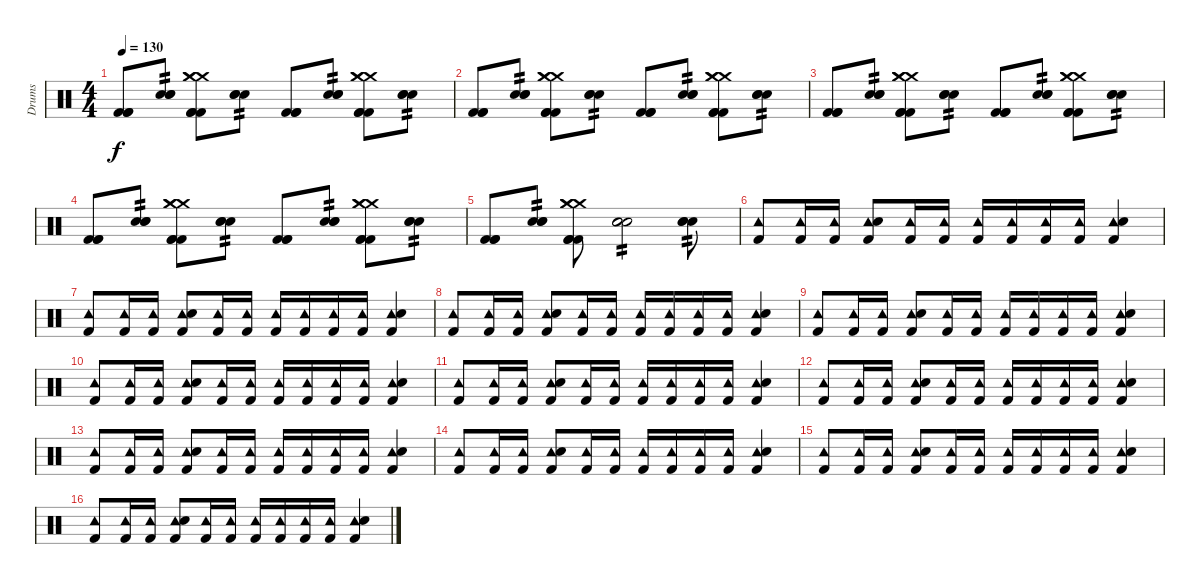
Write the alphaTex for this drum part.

\track ("Drums" "Drums") {instrument percussion}
\staff {score}
\articulation defaults
\ts (4 4)
\tempo 130
\clef neutral
\ks c
("Kick (hit) 2" "Kick (hit) 2" "Kick (hit) 2").8{dy f} ("Electric Snare (hit)" "Electric Snare (hit)" "Electric Snare (hit)").8{tp 2} ("Kick (hit) 2" "Kick (hit) 2" "Kick (hit) 2" "Crash medium (hit)" "Crash medium (hit)" "Crash medium (hit)").8 ("Electric Snare (hit)" "Electric Snare (hit)" "Electric Snare (hit)").8{tp 2} ("Kick (hit) 2" "Kick (hit) 2" "Kick (hit) 2").8 ("Electric Snare (hit)" "Electric Snare (hit)" "Electric Snare (hit)").8{tp 2} ("Kick (hit) 2" "Kick (hit) 2" "Kick (hit) 2" "Crash medium (hit)" "Crash medium (hit)" "Crash medium (hit)").8 ("Electric Snare (hit)" "Electric Snare (hit)" "Electric Snare (hit)").8{tp 2} |
("Kick (hit) 2" "Kick (hit) 2" "Kick (hit) 2").8 ("Electric Snare (hit)" "Electric Snare (hit)" "Electric Snare (hit)").8{tp 2} ("Kick (hit) 2" "Kick (hit) 2" "Kick (hit) 2" "Crash medium (hit)" "Crash medium (hit)" "Crash medium (hit)").8 ("Electric Snare (hit)" "Electric Snare (hit)" "Electric Snare (hit)").8{tp 2} ("Kick (hit) 2" "Kick (hit) 2" "Kick (hit) 2").8 ("Electric Snare (hit)" "Electric Snare (hit)" "Electric Snare (hit)").8{tp 2} ("Kick (hit) 2" "Kick (hit) 2" "Kick (hit) 2" "Crash medium (hit)" "Crash medium (hit)" "Crash medium (hit)").8 ("Electric Snare (hit)" "Electric Snare (hit)" "Electric Snare (hit)").8{tp 2} |
("Kick (hit) 2" "Kick (hit) 2" "Kick (hit) 2").8 ("Electric Snare (hit)" "Electric Snare (hit)" "Electric Snare (hit)").8{tp 2} ("Kick (hit) 2" "Kick (hit) 2" "Kick (hit) 2" "Crash medium (hit)" "Crash medium (hit)" "Crash medium (hit)").8 ("Electric Snare (hit)" "Electric Snare (hit)" "Electric Snare (hit)").8{tp 2} ("Kick (hit) 2" "Kick (hit) 2" "Kick (hit) 2").8 ("Electric Snare (hit)" "Electric Snare (hit)" "Electric Snare (hit)").8{tp 2} ("Kick (hit) 2" "Kick (hit) 2" "Kick (hit) 2" "Crash medium (hit)" "Crash medium (hit)" "Crash medium (hit)").8 ("Electric Snare (hit)" "Electric Snare (hit)" "Electric Snare (hit)").8{tp 2} |
("Kick (hit) 2" "Kick (hit) 2" "Kick (hit) 2").8 ("Electric Snare (hit)" "Electric Snare (hit)" "Electric Snare (hit)").8{tp 2} ("Kick (hit) 2" "Kick (hit) 2" "Kick (hit) 2" "Crash medium (hit)" "Crash medium (hit)" "Crash medium (hit)").8 ("Electric Snare (hit)" "Electric Snare (hit)" "Electric Snare (hit)").8{tp 2} ("Kick (hit) 2" "Kick (hit) 2" "Kick (hit) 2").8 ("Electric Snare (hit)" "Electric Snare (hit)" "Electric Snare (hit)").8{tp 2} ("Kick (hit) 2" "Kick (hit) 2" "Kick (hit) 2" "Crash medium (hit)" "Crash medium (hit)" "Crash medium (hit)").8 ("Electric Snare (hit)" "Electric Snare (hit)" "Electric Snare (hit)").8{tp 2} |
("Kick (hit) 2" "Kick (hit) 2" "Kick (hit) 2").8 ("Electric Snare (hit)" "Electric Snare (hit)" "Electric Snare (hit)").8{tp 2} ("Kick (hit) 2" "Kick (hit) 2" "Kick (hit) 2" "Crash medium (hit)" "Crash medium (hit)" "Crash medium (hit)").8 ("Electric Snare (hit)" "Electric Snare (hit)" "Electric Snare (hit)").2{tp 2} ("Electric Snare (hit)" "Electric Snare (hit)" "Electric Snare (hit)").8{tp 2} |
("Tambourine (hit)" "Kick (hit) 2").8 ("Tambourine (hit)" "Kick (hit) 2").16 ("Tambourine (hit)" "Kick (hit) 2").16 ("Tambourine (hit)" "Kick (hit) 2" "Electric Snare (hit)").8 ("Tambourine (hit)" "Kick (hit) 2").16 ("Tambourine (hit)" "Kick (hit) 2").16 ("Tambourine (hit)" "Kick (hit) 2").16 ("Tambourine (hit)" "Kick (hit) 2").16 ("Tambourine (hit)" "Kick (hit) 2").16 ("Tambourine (hit)" "Kick (hit) 2").16 ("Tambourine (hit)" "Kick (hit) 2" "Electric Snare (hit)").4 |
("Tambourine (hit)" "Kick (hit) 2").8 ("Tambourine (hit)" "Kick (hit) 2").16 ("Tambourine (hit)" "Kick (hit) 2").16 ("Tambourine (hit)" "Kick (hit) 2" "Electric Snare (hit)").8 ("Tambourine (hit)" "Kick (hit) 2").16 ("Tambourine (hit)" "Kick (hit) 2").16 ("Tambourine (hit)" "Kick (hit) 2").16 ("Tambourine (hit)" "Kick (hit) 2").16 ("Tambourine (hit)" "Kick (hit) 2").16 ("Tambourine (hit)" "Kick (hit) 2").16 ("Tambourine (hit)" "Kick (hit) 2" "Electric Snare (hit)").4 |
("Tambourine (hit)" "Kick (hit) 2").8 ("Tambourine (hit)" "Kick (hit) 2").16 ("Tambourine (hit)" "Kick (hit) 2").16 ("Tambourine (hit)" "Kick (hit) 2" "Electric Snare (hit)").8 ("Tambourine (hit)" "Kick (hit) 2").16 ("Tambourine (hit)" "Kick (hit) 2").16 ("Tambourine (hit)" "Kick (hit) 2").16 ("Tambourine (hit)" "Kick (hit) 2").16 ("Tambourine (hit)" "Kick (hit) 2").16 ("Tambourine (hit)" "Kick (hit) 2").16 ("Tambourine (hit)" "Kick (hit) 2" "Electric Snare (hit)").4 |
("Tambourine (hit)" "Kick (hit) 2").8 ("Tambourine (hit)" "Kick (hit) 2").16 ("Tambourine (hit)" "Kick (hit) 2").16 ("Tambourine (hit)" "Kick (hit) 2" "Electric Snare (hit)").8 ("Tambourine (hit)" "Kick (hit) 2").16 ("Tambourine (hit)" "Kick (hit) 2").16 ("Tambourine (hit)" "Kick (hit) 2").16 ("Tambourine (hit)" "Kick (hit) 2").16 ("Tambourine (hit)" "Kick (hit) 2").16 ("Tambourine (hit)" "Kick (hit) 2").16 ("Tambourine (hit)" "Kick (hit) 2" "Electric Snare (hit)").4 |
("Tambourine (hit)" "Kick (hit) 2").8 ("Tambourine (hit)" "Kick (hit) 2").16 ("Tambourine (hit)" "Kick (hit) 2").16 ("Tambourine (hit)" "Kick (hit) 2" "Electric Snare (hit)").8 ("Tambourine (hit)" "Kick (hit) 2").16 ("Tambourine (hit)" "Kick (hit) 2").16 ("Tambourine (hit)" "Kick (hit) 2").16 ("Tambourine (hit)" "Kick (hit) 2").16 ("Tambourine (hit)" "Kick (hit) 2").16 ("Tambourine (hit)" "Kick (hit) 2").16 ("Tambourine (hit)" "Kick (hit) 2" "Electric Snare (hit)").4 |
("Tambourine (hit)" "Kick (hit) 2").8 ("Tambourine (hit)" "Kick (hit) 2").16 ("Tambourine (hit)" "Kick (hit) 2").16 ("Tambourine (hit)" "Kick (hit) 2" "Electric Snare (hit)").8 ("Tambourine (hit)" "Kick (hit) 2").16 ("Tambourine (hit)" "Kick (hit) 2").16 ("Tambourine (hit)" "Kick (hit) 2").16 ("Tambourine (hit)" "Kick (hit) 2").16 ("Tambourine (hit)" "Kick (hit) 2").16 ("Tambourine (hit)" "Kick (hit) 2").16 ("Tambourine (hit)" "Kick (hit) 2" "Electric Snare (hit)").4 |
("Tambourine (hit)" "Kick (hit) 2").8 ("Tambourine (hit)" "Kick (hit) 2").16 ("Tambourine (hit)" "Kick (hit) 2").16 ("Tambourine (hit)" "Kick (hit) 2" "Electric Snare (hit)").8 ("Tambourine (hit)" "Kick (hit) 2").16 ("Tambourine (hit)" "Kick (hit) 2").16 ("Tambourine (hit)" "Kick (hit) 2").16 ("Tambourine (hit)" "Kick (hit) 2").16 ("Tambourine (hit)" "Kick (hit) 2").16 ("Tambourine (hit)" "Kick (hit) 2").16 ("Tambourine (hit)" "Kick (hit) 2" "Electric Snare (hit)").4 |
("Tambourine (hit)" "Kick (hit) 2").8 ("Tambourine (hit)" "Kick (hit) 2").16 ("Tambourine (hit)" "Kick (hit) 2").16 ("Tambourine (hit)" "Kick (hit) 2" "Electric Snare (hit)").8 ("Tambourine (hit)" "Kick (hit) 2").16 ("Tambourine (hit)" "Kick (hit) 2").16 ("Tambourine (hit)" "Kick (hit) 2").16 ("Tambourine (hit)" "Kick (hit) 2").16 ("Tambourine (hit)" "Kick (hit) 2").16 ("Tambourine (hit)" "Kick (hit) 2").16 ("Tambourine (hit)" "Kick (hit) 2" "Electric Snare (hit)").4 |
("Tambourine (hit)" "Kick (hit) 2").8 ("Tambourine (hit)" "Kick (hit) 2").16 ("Tambourine (hit)" "Kick (hit) 2").16 ("Tambourine (hit)" "Kick (hit) 2" "Electric Snare (hit)").8 ("Tambourine (hit)" "Kick (hit) 2").16 ("Tambourine (hit)" "Kick (hit) 2").16 ("Tambourine (hit)" "Kick (hit) 2").16 ("Tambourine (hit)" "Kick (hit) 2").16 ("Tambourine (hit)" "Kick (hit) 2").16 ("Tambourine (hit)" "Kick (hit) 2").16 ("Tambourine (hit)" "Kick (hit) 2" "Electric Snare (hit)").4 |
("Tambourine (hit)" "Kick (hit) 2").8 ("Tambourine (hit)" "Kick (hit) 2").16 ("Tambourine (hit)" "Kick (hit) 2").16 ("Tambourine (hit)" "Kick (hit) 2" "Electric Snare (hit)").8 ("Tambourine (hit)" "Kick (hit) 2").16 ("Tambourine (hit)" "Kick (hit) 2").16 ("Tambourine (hit)" "Kick (hit) 2").16 ("Tambourine (hit)" "Kick (hit) 2").16 ("Tambourine (hit)" "Kick (hit) 2").16 ("Tambourine (hit)" "Kick (hit) 2").16 ("Tambourine (hit)" "Kick (hit) 2" "Electric Snare (hit)").4 |
("Tambourine (hit)" "Kick (hit) 2").8 ("Tambourine (hit)" "Kick (hit) 2").16 ("Tambourine (hit)" "Kick (hit) 2").16 ("Tambourine (hit)" "Kick (hit) 2" "Electric Snare (hit)").8 ("Tambourine (hit)" "Kick (hit) 2").16 ("Tambourine (hit)" "Kick (hit) 2").16 ("Tambourine (hit)" "Kick (hit) 2").16 ("Tambourine (hit)" "Kick (hit) 2").16 ("Tambourine (hit)" "Kick (hit) 2").16 ("Tambourine (hit)" "Kick (hit) 2").16 ("Tambourine (hit)" "Kick (hit) 2" "Electric Snare (hit)").4
